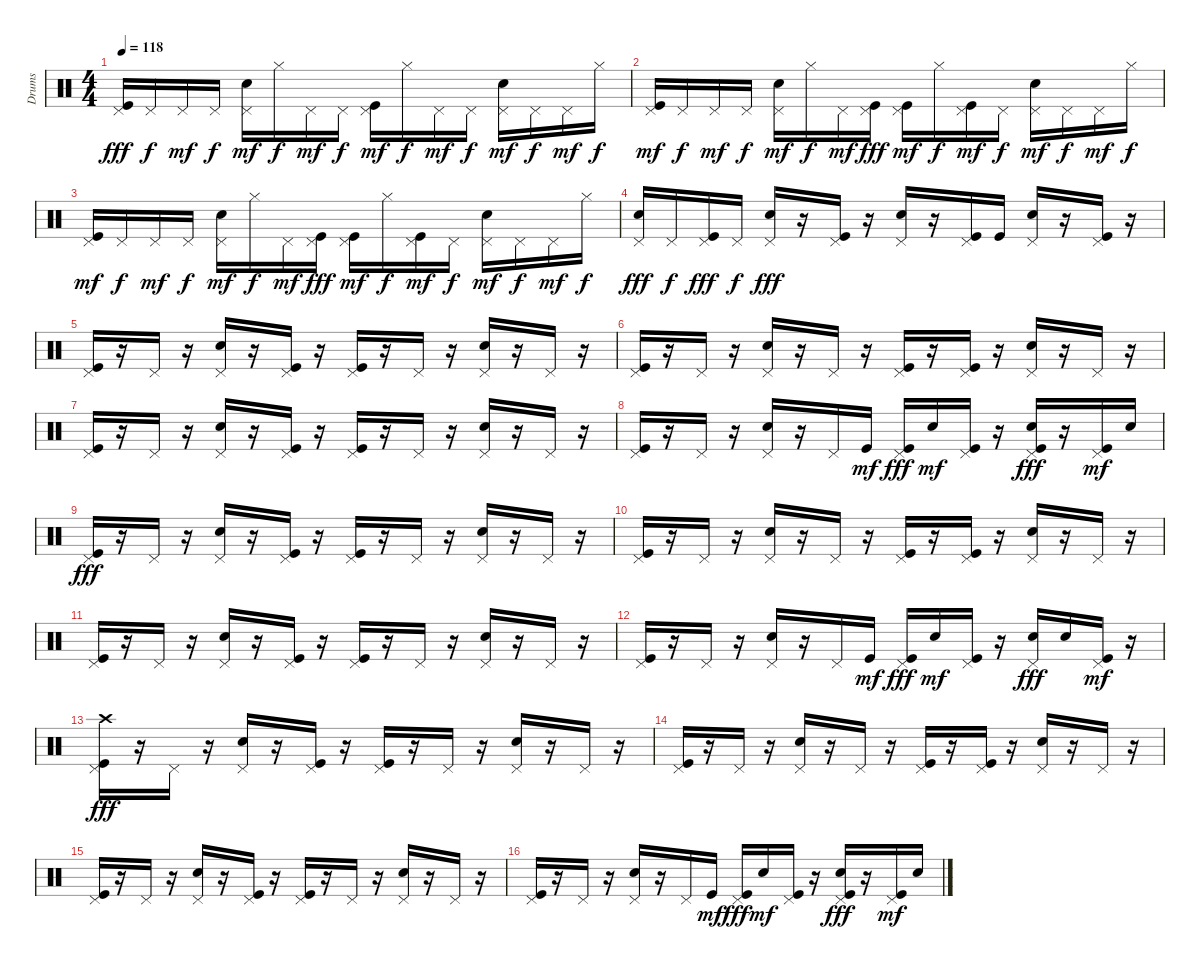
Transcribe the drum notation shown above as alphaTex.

\track ("Drums" "Drums") {instrument percussion}
\staff {score}
\articulation defaults
\ts (4 4)
\tempo 118
\clef neutral
\ks c
("Pedal Hi-Hat (hit)" "Kick (hit)").16{dy fff} "Pedal Hi-Hat (hit)".16{dy f} "Pedal Hi-Hat (hit)".16{dy mf} "Pedal Hi-Hat (hit)".16{dy f} ("Electric Snare (hit)" "Pedal Hi-Hat (hit)").16{dy mf} "Hi-Hat (closed)".16{dy f} "Pedal Hi-Hat (hit)".16{dy mf} "Pedal Hi-Hat (hit)".16{dy f} ("Kick (hit)" "Pedal Hi-Hat (hit)").16{dy mf} "Hi-Hat (closed)".16{dy f} "Pedal Hi-Hat (hit)".16{dy mf} "Pedal Hi-Hat (hit)".16{dy f} ("Electric Snare (hit)" "Pedal Hi-Hat (hit)").16{dy mf} "Pedal Hi-Hat (hit)".16{dy f} "Pedal Hi-Hat (hit)".16{dy mf} "Hi-Hat (closed)".16{dy f} |
("Kick (hit)" "Pedal Hi-Hat (hit)").16{dy mf} "Pedal Hi-Hat (hit)".16{dy f} "Pedal Hi-Hat (hit)".16{dy mf} "Pedal Hi-Hat (hit)".16{dy f} ("Electric Snare (hit)" "Pedal Hi-Hat (hit)").16{dy mf} "Hi-Hat (closed)".16{dy f} "Pedal Hi-Hat (hit)".16{dy mf} ("Kick (hit)" "Pedal Hi-Hat (hit)").16{dy fff} ("Kick (hit)" "Pedal Hi-Hat (hit)").16{dy mf} "Hi-Hat (closed)".16{dy f} ("Kick (hit)" "Pedal Hi-Hat (hit)").16{dy mf} "Pedal Hi-Hat (hit)".16{dy f} ("Electric Snare (hit)" "Pedal Hi-Hat (hit)").16{dy mf} "Pedal Hi-Hat (hit)".16{dy f} "Pedal Hi-Hat (hit)".16{dy mf} "Hi-Hat (closed)".16{dy f} |
("Kick (hit)" "Pedal Hi-Hat (hit)").16{dy mf} "Pedal Hi-Hat (hit)".16{dy f} "Pedal Hi-Hat (hit)".16{dy mf} "Pedal Hi-Hat (hit)".16{dy f} ("Electric Snare (hit)" "Pedal Hi-Hat (hit)").16{dy mf} "Hi-Hat (closed)".16{dy f} "Pedal Hi-Hat (hit)".16{dy mf} ("Kick (hit)" "Pedal Hi-Hat (hit)").16{dy fff} ("Kick (hit)" "Pedal Hi-Hat (hit)").16{dy mf} "Hi-Hat (closed)".16{dy f} ("Kick (hit)" "Pedal Hi-Hat (hit)").16{dy mf} "Pedal Hi-Hat (hit)".16{dy f} ("Electric Snare (hit)" "Pedal Hi-Hat (hit)").16{dy mf} "Pedal Hi-Hat (hit)".16{dy f} "Pedal Hi-Hat (hit)".16{dy mf} "Hi-Hat (closed)".16{dy f} |
("Pedal Hi-Hat (hit)" "Electric Snare (hit)").16{dy fff} "Pedal Hi-Hat (hit)".16{dy f} ("Pedal Hi-Hat (hit)" "Kick (hit)").16{dy fff} "Pedal Hi-Hat (hit)".16{dy f} ("Pedal Hi-Hat (hit)" "Electric Snare (hit)").16{dy fff} r.16 ("Pedal Hi-Hat (hit)" "Kick (hit)").16 r.16 ("Pedal Hi-Hat (hit)" "Electric Snare (hit)").16 r.16 ("Pedal Hi-Hat (hit)" "Kick (hit)").16 "Kick (hit)".16 ("Pedal Hi-Hat (hit)" "Electric Snare (hit)").16 r.16 ("Pedal Hi-Hat (hit)" "Kick (hit)").16 r.16 |
("Kick (hit)" "Pedal Hi-Hat (hit)").16 r.16 "Pedal Hi-Hat (hit)".16 r.16 ("Pedal Hi-Hat (hit)" "Electric Snare (hit)").16 r.16 ("Pedal Hi-Hat (hit)" "Kick (hit)").16 r.16 ("Pedal Hi-Hat (hit)" "Kick (hit)").16 r.16 "Pedal Hi-Hat (hit)".16 r.16 ("Pedal Hi-Hat (hit)" "Electric Snare (hit)").16 r.16 "Pedal Hi-Hat (hit)".16 r.16 |
("Pedal Hi-Hat (hit)" "Kick (hit)").16 r.16 "Pedal Hi-Hat (hit)".16 r.16 ("Pedal Hi-Hat (hit)" "Electric Snare (hit)").16 r.16 "Pedal Hi-Hat (hit)".16 r.16 ("Pedal Hi-Hat (hit)" "Kick (hit)").16 r.16 ("Pedal Hi-Hat (hit)" "Kick (hit)").16 r.16 ("Pedal Hi-Hat (hit)" "Electric Snare (hit)").16 r.16 "Pedal Hi-Hat (hit)".16 r.16 |
("Kick (hit)" "Pedal Hi-Hat (hit)").16 r.16 "Pedal Hi-Hat (hit)".16 r.16 ("Pedal Hi-Hat (hit)" "Electric Snare (hit)").16 r.16 ("Pedal Hi-Hat (hit)" "Kick (hit)").16 r.16 ("Pedal Hi-Hat (hit)" "Kick (hit)").16 r.16 "Pedal Hi-Hat (hit)".16 r.16 ("Pedal Hi-Hat (hit)" "Electric Snare (hit)").16 r.16 "Pedal Hi-Hat (hit)".16 r.16 |
("Pedal Hi-Hat (hit)" "Kick (hit)").16 r.16 "Pedal Hi-Hat (hit)".16 r.16 ("Pedal Hi-Hat (hit)" "Electric Snare (hit)").16 r.16 "Pedal Hi-Hat (hit)".16 "Kick (hit)".16{dy mf} ("Pedal Hi-Hat (hit)" "Kick (hit)").16{dy fff} "Electric Snare (hit)".16{dy mf} ("Pedal Hi-Hat (hit)" "Kick (hit)").16 r.16 ("Pedal Hi-Hat (hit)" "Kick (hit)" "Electric Snare (hit)").16{dy fff} r.16 ("Pedal Hi-Hat (hit)" "Kick (hit)").16{dy mf} "Electric Snare (hit)".16 |
("Kick (hit)" "Pedal Hi-Hat (hit)").16{dy fff} r.16 "Pedal Hi-Hat (hit)".16 r.16 ("Pedal Hi-Hat (hit)" "Electric Snare (hit)").16 r.16 ("Pedal Hi-Hat (hit)" "Kick (hit)").16 r.16 ("Pedal Hi-Hat (hit)" "Kick (hit)").16 r.16 "Pedal Hi-Hat (hit)".16 r.16 ("Pedal Hi-Hat (hit)" "Electric Snare (hit)").16 r.16 "Pedal Hi-Hat (hit)".16 r.16 |
("Pedal Hi-Hat (hit)" "Kick (hit)").16 r.16 "Pedal Hi-Hat (hit)".16 r.16 ("Pedal Hi-Hat (hit)" "Electric Snare (hit)").16 r.16 "Pedal Hi-Hat (hit)".16 r.16 ("Pedal Hi-Hat (hit)" "Kick (hit)").16 r.16 ("Pedal Hi-Hat (hit)" "Kick (hit)").16 r.16 ("Pedal Hi-Hat (hit)" "Electric Snare (hit)").16 r.16 "Pedal Hi-Hat (hit)".16 r.16 |
("Kick (hit)" "Pedal Hi-Hat (hit)").16 r.16 "Pedal Hi-Hat (hit)".16 r.16 ("Pedal Hi-Hat (hit)" "Electric Snare (hit)").16 r.16 ("Pedal Hi-Hat (hit)" "Kick (hit)").16 r.16 ("Pedal Hi-Hat (hit)" "Kick (hit)").16 r.16 "Pedal Hi-Hat (hit)".16 r.16 ("Pedal Hi-Hat (hit)" "Electric Snare (hit)").16 r.16 "Pedal Hi-Hat (hit)".16 r.16 |
("Pedal Hi-Hat (hit)" "Kick (hit)").16 r.16 "Pedal Hi-Hat (hit)".16 r.16 ("Pedal Hi-Hat (hit)" "Electric Snare (hit)").16 r.16 "Pedal Hi-Hat (hit)".16 "Kick (hit)".16{dy mf} ("Pedal Hi-Hat (hit)" "Kick (hit)").16{dy fff} "Electric Snare (hit)".16{dy mf} ("Pedal Hi-Hat (hit)" "Kick (hit)").16 r.16 ("Pedal Hi-Hat (hit)" "Electric Snare (hit)").16{dy fff} "Electric Snare (hit)".16 ("Pedal Hi-Hat (hit)" "Kick (hit)").16{dy mf} r.16 |
("Crash high (hit)" "Kick (hit)" "Pedal Hi-Hat (hit)").16{dy fff} r.16 "Pedal Hi-Hat (hit)".16 r.16 ("Pedal Hi-Hat (hit)" "Electric Snare (hit)").16 r.16 ("Pedal Hi-Hat (hit)" "Kick (hit)").16 r.16 ("Pedal Hi-Hat (hit)" "Kick (hit)").16 r.16 "Pedal Hi-Hat (hit)".16 r.16 ("Pedal Hi-Hat (hit)" "Electric Snare (hit)").16 r.16 "Pedal Hi-Hat (hit)".16 r.16 |
("Pedal Hi-Hat (hit)" "Kick (hit)").16 r.16 "Pedal Hi-Hat (hit)".16 r.16 ("Pedal Hi-Hat (hit)" "Electric Snare (hit)").16 r.16 "Pedal Hi-Hat (hit)".16 r.16 ("Pedal Hi-Hat (hit)" "Kick (hit)").16 r.16 ("Pedal Hi-Hat (hit)" "Kick (hit)").16 r.16 ("Pedal Hi-Hat (hit)" "Electric Snare (hit)").16 r.16 "Pedal Hi-Hat (hit)".16 r.16 |
("Kick (hit)" "Pedal Hi-Hat (hit)").16 r.16 "Pedal Hi-Hat (hit)".16 r.16 ("Pedal Hi-Hat (hit)" "Electric Snare (hit)").16 r.16 ("Pedal Hi-Hat (hit)" "Kick (hit)").16 r.16 ("Pedal Hi-Hat (hit)" "Kick (hit)").16 r.16 "Pedal Hi-Hat (hit)".16 r.16 ("Pedal Hi-Hat (hit)" "Electric Snare (hit)").16 r.16 "Pedal Hi-Hat (hit)".16 r.16 |
("Pedal Hi-Hat (hit)" "Kick (hit)").16 r.16 "Pedal Hi-Hat (hit)".16 r.16 ("Pedal Hi-Hat (hit)" "Electric Snare (hit)").16 r.16 "Pedal Hi-Hat (hit)".16 "Kick (hit)".16{dy mf} ("Pedal Hi-Hat (hit)" "Kick (hit)").16{dy fff} "Electric Snare (hit)".16{dy mf} ("Pedal Hi-Hat (hit)" "Kick (hit)").16 r.16 ("Pedal Hi-Hat (hit)" "Kick (hit)" "Electric Snare (hit)").16{dy fff} r.16 ("Pedal Hi-Hat (hit)" "Kick (hit)").16{dy mf} "Electric Snare (hit)".16
